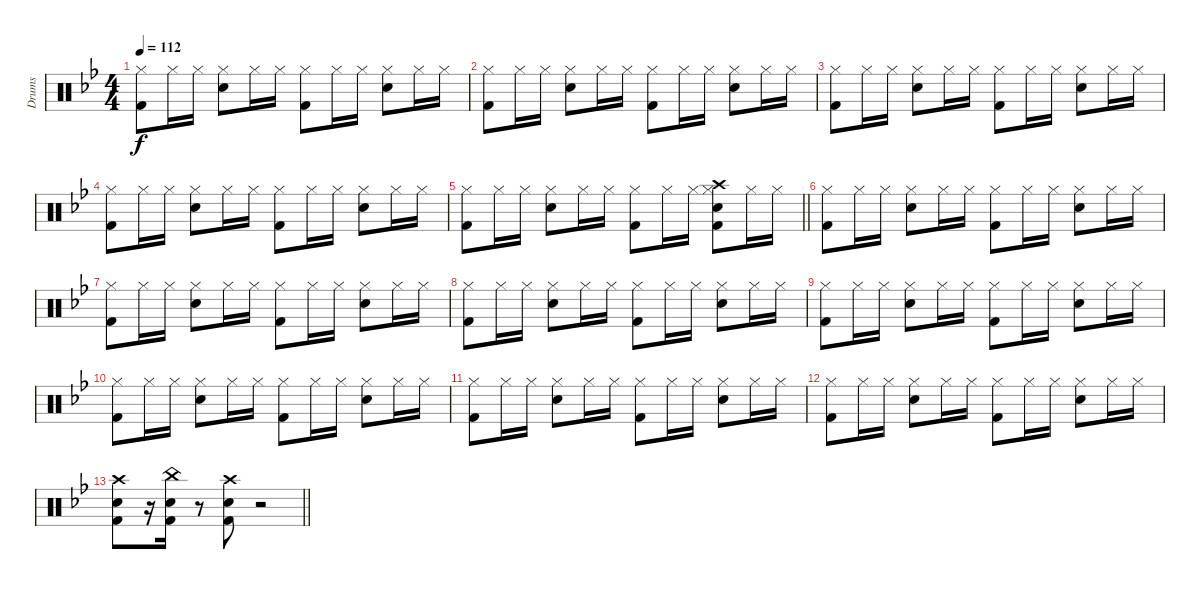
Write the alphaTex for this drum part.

\track ("Drums" "Drums") {instrument percussion}
\staff {score}
\articulation defaults
\ts (4 4)
\tempo 112
\clef neutral
\ks bb
("Hi-Hat (closed)" "Kick (hit) 2").8{dy f} "Hi-Hat (closed)".16 "Hi-Hat (closed)".16 ("Snare (hit) 2" "Hi-Hat (closed)").8 "Hi-Hat (closed)".16 "Hi-Hat (closed)".16 ("Hi-Hat (closed)" "Kick (hit) 2").8 "Hi-Hat (closed)".16 "Hi-Hat (closed)".16 ("Snare (hit) 2" "Hi-Hat (closed)").8 "Hi-Hat (closed)".16 "Hi-Hat (closed)".16 |
("Hi-Hat (closed)" "Kick (hit) 2").8 "Hi-Hat (closed)".16 "Hi-Hat (closed)".16 ("Snare (hit) 2" "Hi-Hat (closed)").8 "Hi-Hat (closed)".16 "Hi-Hat (closed)".16 ("Hi-Hat (closed)" "Kick (hit) 2").8 "Hi-Hat (closed)".16 "Hi-Hat (closed)".16 ("Snare (hit) 2" "Hi-Hat (closed)").8 "Hi-Hat (closed)".16 "Hi-Hat (closed)".16 |
("Hi-Hat (closed)" "Kick (hit) 2").8 "Hi-Hat (closed)".16 "Hi-Hat (closed)".16 ("Snare (hit) 2" "Hi-Hat (closed)").8 "Hi-Hat (closed)".16 "Hi-Hat (closed)".16 ("Hi-Hat (closed)" "Kick (hit) 2").8 "Hi-Hat (closed)".16 "Hi-Hat (closed)".16 ("Snare (hit) 2" "Hi-Hat (closed)").8 "Hi-Hat (closed)".16 "Hi-Hat (closed)".16 |
("Hi-Hat (closed)" "Kick (hit) 2").8 "Hi-Hat (closed)".16 "Hi-Hat (closed)".16 ("Snare (hit) 2" "Hi-Hat (closed)").8 "Hi-Hat (closed)".16 "Hi-Hat (closed)".16 ("Hi-Hat (closed)" "Kick (hit) 2").8 "Hi-Hat (closed)".16 "Hi-Hat (closed)".16 ("Snare (hit) 2" "Hi-Hat (closed)").8 "Hi-Hat (closed)".16 "Hi-Hat (closed)".16 |
\barLineRight lightlight
("Hi-Hat (closed)" "Kick (hit) 2").8 "Hi-Hat (closed)".16 "Hi-Hat (closed)".16 ("Snare (hit) 2" "Hi-Hat (closed)").8 "Hi-Hat (closed)".16 "Hi-Hat (closed)".16 ("Hi-Hat (closed)" "Kick (hit) 2").8 "Hi-Hat (closed)".16 "Hi-Hat (closed)".16 ("Snare (hit) 2" "Hi-Hat (closed)" "Crash high (hit)" "Kick (hit) 2").8 "Hi-Hat (closed)".16 "Hi-Hat (closed)".16 |
("Hi-Hat (closed)" "Kick (hit) 2").8 "Hi-Hat (closed)".16 "Hi-Hat (closed)".16 ("Snare (hit) 2" "Hi-Hat (closed)").8 "Hi-Hat (closed)".16 "Hi-Hat (closed)".16 ("Hi-Hat (closed)" "Kick (hit) 2").8 "Hi-Hat (closed)".16 "Hi-Hat (closed)".16 ("Snare (hit) 2" "Hi-Hat (closed)").8 "Hi-Hat (closed)".16 "Hi-Hat (closed)".16 |
("Hi-Hat (closed)" "Kick (hit) 2").8 "Hi-Hat (closed)".16 "Hi-Hat (closed)".16 ("Snare (hit) 2" "Hi-Hat (closed)").8 "Hi-Hat (closed)".16 "Hi-Hat (closed)".16 ("Hi-Hat (closed)" "Kick (hit) 2").8 "Hi-Hat (closed)".16 "Hi-Hat (closed)".16 ("Snare (hit) 2" "Hi-Hat (closed)").8 "Hi-Hat (closed)".16 "Hi-Hat (closed)".16 |
("Hi-Hat (closed)" "Kick (hit) 2").8 "Hi-Hat (closed)".16 "Hi-Hat (closed)".16 ("Snare (hit) 2" "Hi-Hat (closed)").8 "Hi-Hat (closed)".16 "Hi-Hat (closed)".16 ("Hi-Hat (closed)" "Kick (hit) 2").8 "Hi-Hat (closed)".16 "Hi-Hat (closed)".16 ("Snare (hit) 2" "Hi-Hat (closed)").8 "Hi-Hat (closed)".16 "Hi-Hat (closed)".16 |
("Hi-Hat (closed)" "Kick (hit) 2").8 "Hi-Hat (closed)".16 "Hi-Hat (closed)".16 ("Snare (hit) 2" "Hi-Hat (closed)").8 "Hi-Hat (closed)".16 "Hi-Hat (closed)".16 ("Hi-Hat (closed)" "Kick (hit) 2").8 "Hi-Hat (closed)".16 "Hi-Hat (closed)".16 ("Snare (hit) 2" "Hi-Hat (closed)").8 "Hi-Hat (closed)".16 "Hi-Hat (closed)".16 |
("Hi-Hat (closed)" "Kick (hit) 2").8 "Hi-Hat (closed)".16 "Hi-Hat (closed)".16 ("Snare (hit) 2" "Hi-Hat (closed)").8 "Hi-Hat (closed)".16 "Hi-Hat (closed)".16 ("Hi-Hat (closed)" "Kick (hit) 2").8 "Hi-Hat (closed)".16 "Hi-Hat (closed)".16 ("Snare (hit) 2" "Hi-Hat (closed)").8 "Hi-Hat (closed)".16 "Hi-Hat (closed)".16 |
("Hi-Hat (closed)" "Kick (hit) 2").8 "Hi-Hat (closed)".16 "Hi-Hat (closed)".16 ("Snare (hit) 2" "Hi-Hat (closed)").8 "Hi-Hat (closed)".16 "Hi-Hat (closed)".16 ("Hi-Hat (closed)" "Kick (hit) 2").8 "Hi-Hat (closed)".16 "Hi-Hat (closed)".16 ("Snare (hit) 2" "Hi-Hat (closed)").8 "Hi-Hat (closed)".16 "Hi-Hat (closed)".16 |
("Hi-Hat (closed)" "Kick (hit) 2").8 "Hi-Hat (closed)".16 "Hi-Hat (closed)".16 ("Snare (hit) 2" "Hi-Hat (closed)").8 "Hi-Hat (closed)".16 "Hi-Hat (closed)".16 ("Hi-Hat (closed)" "Kick (hit) 2").8 "Hi-Hat (closed)".16 "Hi-Hat (closed)".16 ("Snare (hit) 2" "Hi-Hat (closed)").8 "Hi-Hat (closed)".16 "Hi-Hat (closed)".16 |
\barLineRight lightlight
("Kick (hit) 2" "Snare (hit) 2" "Crash high (hit)").8 r.16 ("Kick (hit) 2" "Snare (hit) 2" "China (hit)").16 r.8 ("Kick (hit) 2" "Snare (hit) 2" "Crash high (hit)").8 r.2
